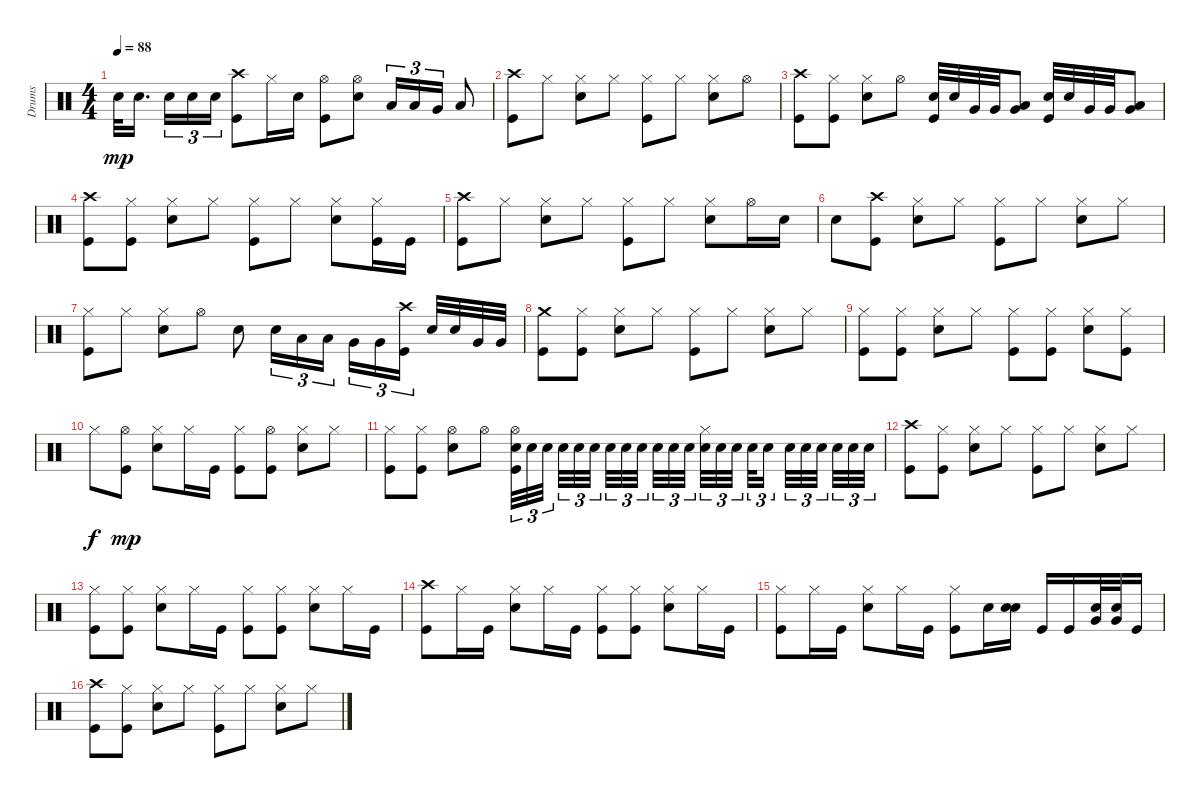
\track ("Drums" "Drums") {instrument percussion}
\staff {score}
\articulation defaults
\ts (4 4)
\tempo 88
\clef neutral
\ks c "Snare (hit) 2".32{dy mp} "Snare (hit) 2".16{d beam splitsecondary} "Snare (hit) 2".16{tu (3 2)} "Snare (hit) 2".16{tu (3 2)} "Snare (hit) 2".16{tu (3 2)}
("Kick (hit)" "Crash high (hit)").8 "Hi-Hat (closed)".16 "Snare (hit) 2".16 ("Hi-Hat (open)" "Kick (hit)").8 ("Snare (hit) 2" "Hi-Hat (open)").8 "Low Tom (hit)".16{tu (3 2)} "Low Tom (hit)".16{tu (3 2)} "Very Low Tom (hit)".16{tu (3 2)} "Low Floor Tom (hit)".8 |
("Kick (hit)" "Crash high (hit)").8 "Hi-Hat (closed)".8 ("Hi-Hat (closed)" "Snare (hit) 2").8 "Hi-Hat (closed)".8 ("Hi-Hat (closed)" "Kick (hit)").8 "Hi-Hat (closed)".8 ("Hi-Hat (closed)" "Snare (hit) 2").8 "Hi-Hat (open)".8 |
("Kick (hit)" "Crash high (hit)").8 ("Kick (hit)" "Hi-Hat (closed)").8 ("Hi-Hat (closed)" "Snare (hit) 2").8 "Hi-Hat (open)".8 ("Snare (hit) 2" "Kick (hit)").32 "Snare (hit) 2".32 "Very Low Tom (hit)".32 "Very Low Tom (hit)".32 ("Very Low Tom (hit)" "Low Floor Tom (hit)").8 ("Snare (hit) 2" "Kick (hit)").32 "Snare (hit) 2".32 "Very Low Tom (hit)".32 "Very Low Tom (hit)".32 ("Very Low Tom (hit)" "Low Floor Tom (hit)").8 |
("Kick (hit)" "Crash high (hit)").8 ("Hi-Hat (closed)" "Kick (hit)").8 ("Hi-Hat (closed)" "Snare (hit) 2").8 "Hi-Hat (closed)".8 ("Kick (hit)" "Hi-Hat (closed)").8 "Hi-Hat (closed)".8 ("Hi-Hat (closed)" "Snare (hit) 2").8 ("Hi-Hat (closed)" "Kick (hit)").16 "Kick (hit)".16 |
("Kick (hit)" "Crash high (hit)").8 "Hi-Hat (closed)".8 ("Snare (hit) 2" "Hi-Hat (closed)").8 "Hi-Hat (closed)".8 ("Hi-Hat (closed)" "Kick (hit)").8 "Hi-Hat (closed)".8 ("Snare (hit) 2" "Hi-Hat (closed)").8 "Hi-Hat (open)".16 "Snare (hit) 2".16 |
"Snare (hit) 2".8 ("Kick (hit)" "Crash high (hit)").8 ("Snare (hit) 2" "Hi-Hat (closed)").8 "Hi-Hat (closed)".8 ("Hi-Hat (closed)" "Kick (hit)").8 "Hi-Hat (closed)".8 ("Snare (hit) 2" "Hi-Hat (closed)").8 "Hi-Hat (closed)".8 |
("Kick (hit)" "Hi-Hat (closed)").8 "Hi-Hat (closed)".8 ("Hi-Hat (closed)" "Snare (hit) 2").8 "Hi-Hat (open)".8 "Snare (hit) 2".8 "Snare (hit) 2".16{tu (3 2)} "Low Tom (hit)".16{tu (3 2)} "Low Tom (hit)".16{tu (3 2)} "Very Low Tom (hit)".16{tu (3 2)} "Very Low Tom (hit)".16{tu (3 2)} ("Kick (hit)" "Crash high (hit)").16{tu (3 2) beam splitsecondary} "Snare (hit) 2".32 "Snare (hit) 2".32 "Very Low Tom (hit)".32 "Very Low Tom (hit)".32 |
("Kick (hit)" "Crash medium (hit)").8 ("Hi-Hat (closed)" "Kick (hit)").8 ("Snare (hit) 2" "Hi-Hat (closed)").8 "Hi-Hat (closed)".8 ("Kick (hit)" "Hi-Hat (closed)").8 "Hi-Hat (closed)".8 ("Snare (hit) 2" "Hi-Hat (closed)").8 "Hi-Hat (closed)".8 |
("Kick (hit)" "Hi-Hat (closed)").8 ("Hi-Hat (closed)" "Kick (hit)").8 ("Hi-Hat (closed)" "Snare (hit) 2").8 "Hi-Hat (closed)".8 ("Hi-Hat (closed)" "Kick (hit)").8 ("Hi-Hat (closed)" "Kick (hit)").8 ("Hi-Hat (closed)" "Snare (hit) 2").8 ("Kick (hit)" "Hi-Hat (closed)").8 |
"Hi-Hat (closed)".8{dy f} ("Kick (hit)" "Hi-Hat (open)").8{dy mp} ("Hi-Hat (closed)" "Snare (hit) 2").8 "Hi-Hat (closed)".16 "Kick (hit)".16 ("Hi-Hat (closed)" "Kick (hit)").8 ("Hi-Hat (open)" "Kick (hit)").8 ("Snare (hit) 2" "Hi-Hat (closed)").8 "Hi-Hat (closed)".8 |
("Kick (hit)" "Hi-Hat (closed)").8 ("Kick (hit)" "Hi-Hat (closed)").8 ("Snare (hit) 2" "Hi-Hat (open)").8 "Hi-Hat (open)".8 ("Snare (hit) 2" "Kick (hit)" "Hi-Hat (open)").32{tu (3 2)} "Snare (hit) 2".32{tu (3 2)} "Snare (hit) 2".32{tu (3 2) beam splitsecondary} "Snare (hit) 2".32{tu (3 2)} "Snare (hit) 2".32{tu (3 2)} "Snare (hit) 2".32{tu (3 2) beam splitsecondary} "Snare (hit) 2".32{tu (3 2)} "Snare (hit) 2".32{tu (3 2)} "Snare (hit) 2".32{tu (3 2) beam splitsecondary} "Snare (hit) 2".32{tu (3 2)} "Snare (hit) 2".32{tu (3 2)} "Snare (hit) 2".32{tu (3 2)} ("Hi-Hat (closed)" "Snare (hit) 2").32{tu (3 2)} "Snare (hit) 2".32{tu (3 2)} "Snare (hit) 2".32{tu (3 2) beam splitsecondary} "Snare (hit) 2".32{tu (3 2)} "Snare (hit) 2".16{tu (3 2) beam splitsecondary} "Snare (hit) 2".32{tu (3 2)} "Snare (hit) 2".32{tu (3 2)} "Snare (hit) 2".32{tu (3 2) beam splitsecondary} "Snare (hit) 2".32{tu (3 2)} "Snare (hit) 2".32{tu (3 2)} "Snare (hit) 2".32{tu (3 2)} |
("Kick (hit)" "Crash high (hit)").8 ("Hi-Hat (closed)" "Kick (hit)").8 ("Hi-Hat (closed)" "Snare (hit) 2").8 "Hi-Hat (closed)".8 ("Hi-Hat (closed)" "Kick (hit)").8 "Hi-Hat (closed)".8 ("Hi-Hat (closed)" "Snare (hit) 2").8 "Hi-Hat (closed)".8 |
("Hi-Hat (closed)" "Kick (hit)").8 ("Hi-Hat (closed)" "Kick (hit)").8 ("Hi-Hat (closed)" "Snare (hit) 2").8 "Hi-Hat (closed)".16 "Kick (hit)".16 ("Hi-Hat (closed)" "Kick (hit)").8 ("Kick (hit)" "Hi-Hat (closed)").8 ("Hi-Hat (closed)" "Snare (hit) 2").8 "Hi-Hat (closed)".16 "Kick (hit)".16 |
("Crash high (hit)" "Kick (hit)").8 "Hi-Hat (closed)".16 "Kick (hit)".16 ("Hi-Hat (closed)" "Snare (hit) 2").8 "Hi-Hat (closed)".16 "Kick (hit)".16 ("Hi-Hat (closed)" "Kick (hit)").8 ("Hi-Hat (closed)" "Kick (hit)").8 ("Hi-Hat (closed)" "Snare (hit) 2").8 "Hi-Hat (closed)".16 "Kick (hit)".16 |
("Hi-Hat (closed)" "Kick (hit)").8 "Hi-Hat (closed)".16 "Kick (hit)".16 ("Hi-Hat (closed)" "Snare (hit) 2").8 "Hi-Hat (closed)".16 "Kick (hit)".16 ("Hi-Hat (closed)" "Kick (hit)").8 "Snare (hit) 2".16 ("Snare (hit) 2" "Snare (hit) 2").16 "Kick (hit)".16 "Kick (hit)".16 ("Snare (hit) 2" "Very Low Tom (hit)").32 ("Snare (hit) 2" "Very Low Tom (hit)").32 "Kick (hit)".16 |
("Kick (hit)" "Crash high (hit)").8 ("Hi-Hat (closed)" "Kick (hit)").8 ("Hi-Hat (closed)" "Snare (hit) 2").8 "Hi-Hat (closed)".8 ("Hi-Hat (closed)" "Kick (hit)").8 "Hi-Hat (closed)".8 ("Hi-Hat (closed)" "Snare (hit) 2").8 "Hi-Hat (closed)".8
